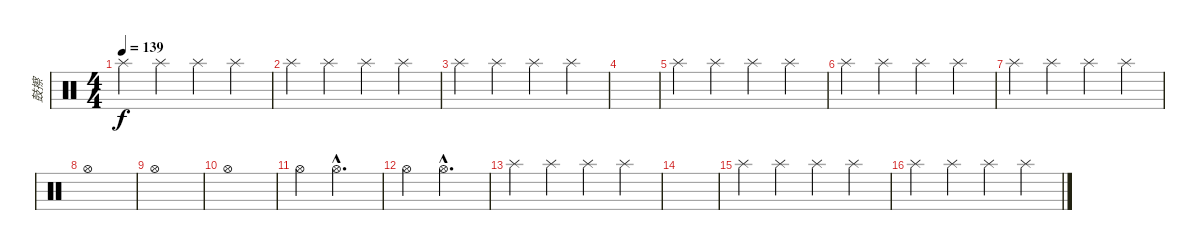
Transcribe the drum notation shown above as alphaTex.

\track ("鼓擦" "鼓擦") {instrument percussion}
\staff {score}
\articulation defaults
\ts (4 4)
\tempo 139
\clef neutral
\ks c "Splash (hit)".4{dy f} "Splash (hit)".4 "Splash (hit)".4 "Splash (hit)".4
|
"Splash (hit)".4 "Splash (hit)".4 "Splash (hit)".4 "Splash (hit)".4 |
"Splash (hit)".4 "Splash (hit)".4 "Splash (hit)".4 "Splash (hit)".4 |
|
"Splash (hit)".4 "Splash (hit)".4 "Splash (hit)".4 "Splash (hit)".4 |
"Splash (hit)".4 "Splash (hit)".4 "Splash (hit)".4 "Splash (hit)".4 |
"Splash (hit)".4 "Splash (hit)".4 "Splash (hit)".4 "Splash (hit)".4 |
"Hi-Hat (open)".1 |
"Hi-Hat (open)".1 |
"Hi-Hat (open)".1 |
"Hi-Hat (open)".4 "Hi-Hat (open)"{hac}.2{d} |
"Hi-Hat (open)".4 "Hi-Hat (open)"{hac}.2{d} |
"Splash (hit)".4 "Splash (hit)".4 "Splash (hit)".4 "Splash (hit)".4 |
|
"Splash (hit)".4 "Splash (hit)".4 "Splash (hit)".4 "Splash (hit)".4 |
"Splash (hit)".4 "Splash (hit)".4 "Splash (hit)".4 "Splash (hit)".4
